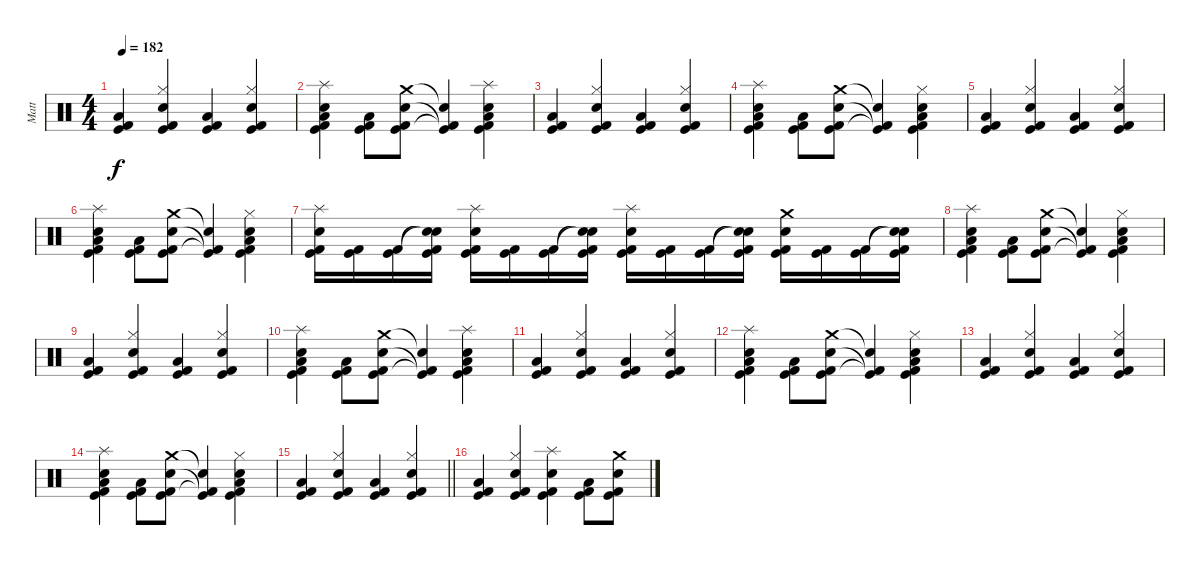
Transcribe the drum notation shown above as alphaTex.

\track ("Matt" "Matt") {instrument percussion}
\staff {score}
\articulation defaults
\ts (4 4)
\tempo 182
\clef neutral
\ks c
("Low Floor Tom (hit)" "Kick (hit)" "Kick (hit) 2").4{dy f} ("Hi-Hat (closed)" "Electric Snare (hit)" "Kick (hit)" "Kick (hit) 2").4 ("Low Floor Tom (hit)" "Kick (hit)" "Kick (hit) 2").4 ("Hi-Hat (closed)" "Electric Snare (hit)" "Kick (hit)" "Kick (hit) 2").4 |
("Splash (hit)" "Electric Snare (hit)" "Low Floor Tom (hit)" "Kick (hit)" "Kick (hit) 2").4 ("Low Floor Tom (hit)" "Kick (hit)" "Kick (hit) 2").8 ("Crash medium (hit)" "Electric Snare (hit)" "Kick (hit)" "Kick (hit) 2").8 ("Electric Snare (hit)"{t} "Kick (hit)"{t} "Kick (hit) 2"{t}).4 ("Splash (hit)" "Electric Snare (hit)" "Low Floor Tom (hit)" "Kick (hit)" "Kick (hit) 2").4 |
("Low Floor Tom (hit)" "Kick (hit)" "Kick (hit) 2").4 ("Hi-Hat (closed)" "Electric Snare (hit)" "Kick (hit)" "Kick (hit) 2").4 ("Low Floor Tom (hit)" "Kick (hit)" "Kick (hit) 2").4 ("Hi-Hat (closed)" "Electric Snare (hit)" "Kick (hit)" "Kick (hit) 2").4 |
("Splash (hit)" "Electric Snare (hit)" "Low Floor Tom (hit)" "Kick (hit)" "Kick (hit) 2").4 ("Low Floor Tom (hit)" "Kick (hit)" "Kick (hit) 2").8 ("Crash medium (hit)" "Electric Snare (hit)" "Kick (hit)" "Kick (hit) 2").8 ("Electric Snare (hit)"{t} "Kick (hit)"{t} "Kick (hit) 2"{t}).4 ("Hi-Hat (closed)" "Electric Snare (hit)" "Low Floor Tom (hit)" "Kick (hit)" "Kick (hit) 2").4 |
("Low Floor Tom (hit)" "Kick (hit)" "Kick (hit) 2").4 ("Hi-Hat (closed)" "Electric Snare (hit)" "Kick (hit)" "Kick (hit) 2").4 ("Low Floor Tom (hit)" "Kick (hit)" "Kick (hit) 2").4 ("Hi-Hat (closed)" "Electric Snare (hit)" "Kick (hit)" "Kick (hit) 2").4 |
("Splash (hit)" "Electric Snare (hit)" "Low Floor Tom (hit)" "Kick (hit)" "Kick (hit) 2").4 ("Low Floor Tom (hit)" "Kick (hit)" "Kick (hit) 2").8 ("Crash medium (hit)" "Electric Snare (hit)" "Kick (hit)" "Kick (hit) 2").8 ("Electric Snare (hit)"{t} "Kick (hit)"{t} "Kick (hit) 2"{t}).4 ("Hi-Hat (closed)" "Electric Snare (hit)" "Low Floor Tom (hit)" "Kick (hit)" "Kick (hit) 2").4 |
("Splash (hit)" "Electric Snare (hit)" "Kick (hit)" "Kick (hit) 2").16 ("Kick (hit)" "Kick (hit) 2").16 ("Kick (hit)" "Kick (hit) 2").16 ("Snare (hit)"{t} "Snare (hit)"{t} "Kick (hit)" "Kick (hit) 2").16 ("Splash (hit)" "Electric Snare (hit)" "Kick (hit)" "Kick (hit) 2").16 ("Kick (hit)" "Kick (hit) 2").16 ("Kick (hit)" "Kick (hit) 2").16 ("Snare (hit)"{t} "Snare (hit)"{t} "Kick (hit)" "Kick (hit) 2").16 ("Splash (hit)" "Electric Snare (hit)" "Kick (hit)" "Kick (hit) 2").16 ("Kick (hit)" "Kick (hit) 2").16 ("Kick (hit)" "Kick (hit) 2").16 ("Snare (hit)"{t} "Snare (hit)"{t} "Kick (hit)" "Kick (hit) 2").16 ("Crash medium (hit)" "Electric Snare (hit)" "Kick (hit)" "Kick (hit) 2").16 ("Kick (hit)" "Kick (hit) 2").16 ("Kick (hit)" "Kick (hit) 2").16 ("Snare (hit)"{t} "Snare (hit)"{t} "Kick (hit)" "Kick (hit) 2").16 |
("Splash (hit)" "Electric Snare (hit)" "Low Floor Tom (hit)" "Kick (hit)" "Kick (hit) 2").4 ("Low Floor Tom (hit)" "Kick (hit)" "Kick (hit) 2").8 ("Crash medium (hit)" "Electric Snare (hit)" "Kick (hit)" "Kick (hit) 2").8 ("Electric Snare (hit)"{t} "Kick (hit)"{t} "Kick (hit) 2"{t}).4 ("Hi-Hat (closed)" "Electric Snare (hit)" "Low Floor Tom (hit)" "Kick (hit)" "Kick (hit) 2").4 |
("Low Floor Tom (hit)" "Kick (hit)" "Kick (hit) 2").4 ("Hi-Hat (closed)" "Electric Snare (hit)" "Kick (hit)" "Kick (hit) 2").4 ("Low Floor Tom (hit)" "Kick (hit)" "Kick (hit) 2").4 ("Hi-Hat (closed)" "Electric Snare (hit)" "Kick (hit)" "Kick (hit) 2").4 |
("Splash (hit)" "Electric Snare (hit)" "Low Floor Tom (hit)" "Kick (hit)" "Kick (hit) 2").4 ("Low Floor Tom (hit)" "Kick (hit)" "Kick (hit) 2").8 ("Crash medium (hit)" "Electric Snare (hit)" "Kick (hit)" "Kick (hit) 2").8 ("Electric Snare (hit)"{t} "Kick (hit)"{t} "Kick (hit) 2"{t}).4 ("Splash (hit)" "Electric Snare (hit)" "Low Floor Tom (hit)" "Kick (hit)" "Kick (hit) 2").4 |
("Low Floor Tom (hit)" "Kick (hit)" "Kick (hit) 2").4 ("Hi-Hat (closed)" "Electric Snare (hit)" "Kick (hit)" "Kick (hit) 2").4 ("Low Floor Tom (hit)" "Kick (hit)" "Kick (hit) 2").4 ("Hi-Hat (closed)" "Electric Snare (hit)" "Kick (hit)" "Kick (hit) 2").4 |
("Splash (hit)" "Electric Snare (hit)" "Low Floor Tom (hit)" "Kick (hit)" "Kick (hit) 2").4 ("Low Floor Tom (hit)" "Kick (hit)" "Kick (hit) 2").8 ("Crash medium (hit)" "Electric Snare (hit)" "Kick (hit)" "Kick (hit) 2").8 ("Electric Snare (hit)"{t} "Kick (hit)"{t} "Kick (hit) 2"{t}).4 ("Hi-Hat (closed)" "Electric Snare (hit)" "Low Floor Tom (hit)" "Kick (hit)" "Kick (hit) 2").4 |
("Low Floor Tom (hit)" "Kick (hit)" "Kick (hit) 2").4 ("Hi-Hat (closed)" "Electric Snare (hit)" "Kick (hit)" "Kick (hit) 2").4 ("Low Floor Tom (hit)" "Kick (hit)" "Kick (hit) 2").4 ("Hi-Hat (closed)" "Electric Snare (hit)" "Kick (hit)" "Kick (hit) 2").4 |
("Splash (hit)" "Electric Snare (hit)" "Low Floor Tom (hit)" "Kick (hit)" "Kick (hit) 2").4 ("Low Floor Tom (hit)" "Kick (hit)" "Kick (hit) 2").8 ("Crash medium (hit)" "Electric Snare (hit)" "Kick (hit)" "Kick (hit) 2").8 ("Electric Snare (hit)"{t} "Kick (hit)"{t} "Kick (hit) 2"{t}).4 ("Hi-Hat (closed)" "Electric Snare (hit)" "Low Floor Tom (hit)" "Kick (hit)" "Kick (hit) 2").4 |
\barLineRight lightlight
("Low Floor Tom (hit)" "Kick (hit)" "Kick (hit) 2").4 ("Hi-Hat (closed)" "Electric Snare (hit)" "Kick (hit)" "Kick (hit) 2").4 ("Low Floor Tom (hit)" "Kick (hit)" "Kick (hit) 2").4 ("Hi-Hat (closed)" "Electric Snare (hit)" "Kick (hit)" "Kick (hit) 2").4 |
("Low Floor Tom (hit)" "Kick (hit)" "Kick (hit) 2").4 ("Hi-Hat (closed)" "Electric Snare (hit)" "Kick (hit)" "Kick (hit) 2").4 ("Splash (hit)" "Electric Snare (hit)" "Kick (hit)" "Kick (hit) 2").4 ("Low Floor Tom (hit)" "Kick (hit)" "Kick (hit) 2").8 ("Crash medium (hit)" "Electric Snare (hit)" "Kick (hit)" "Kick (hit) 2").8
